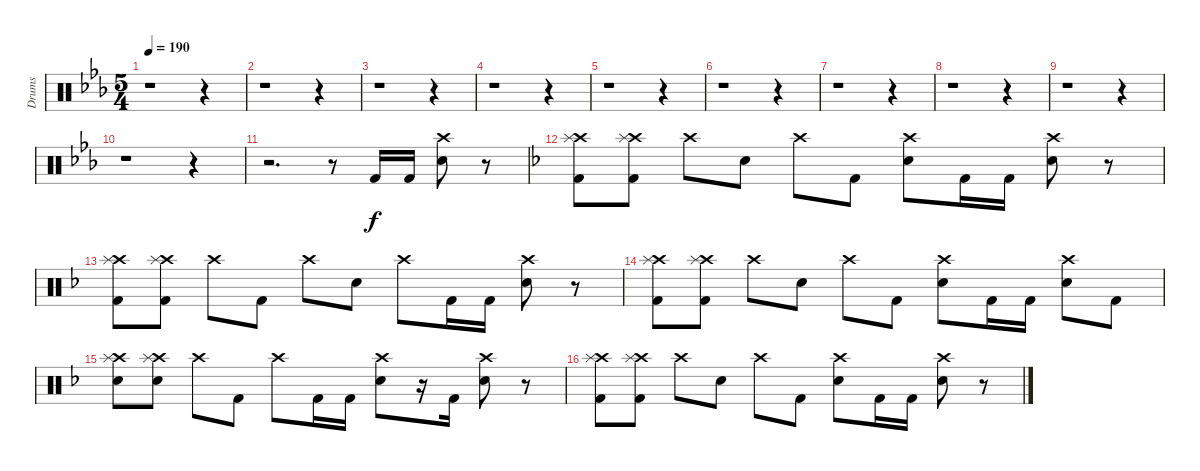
\track ("Drums" "Drums") {instrument percussion}
\staff {score}
\articulation defaults
\ts (5 4)
\tempo 190
\clef neutral
\ks eb
r.1{dy f} r.4 |
r.1 r.4 |
r.1 r.4 |
r.1 r.4 |
r.1 r.4 |
r.1 r.4 |
r.1 r.4 |
r.1 r.4 |
r.1 r.4 |
r.1 r.4 |
r.2{d} r.8 "Kick (hit) 2".16 "Kick (hit) 2".16 ("Electric Snare (hit)" "Crash high (hit)").8 r.8 |
\ks dminor
("Kick (hit) 2" "Crash high (hit)" "Splash (hit)").8 ("Kick (hit) 2" "Crash high (hit)" "Splash (hit)").8 "Crash high (hit)".8 "Electric Snare (hit)".8 "Crash high (hit)".8 "Kick (hit) 2".8 ("Electric Snare (hit)" "Crash high (hit)").8 "Kick (hit) 2".16 "Kick (hit) 2".16 ("Electric Snare (hit)" "Crash high (hit)").8 r.8 |
("Kick (hit) 2" "Crash high (hit)" "Splash (hit)").8 ("Kick (hit) 2" "Crash high (hit)" "Splash (hit)").8 "Crash high (hit)".8 "Kick (hit) 2".8 "Crash high (hit)".8 "Electric Snare (hit)".8 "Crash high (hit)".8 "Kick (hit) 2".16 "Kick (hit) 2".16 ("Electric Snare (hit)" "Crash high (hit)").8 r.8 |
("Kick (hit) 2" "Crash high (hit)" "Splash (hit)").8 ("Kick (hit) 2" "Crash high (hit)" "Splash (hit)").8 "Crash high (hit)".8 "Electric Snare (hit)".8 "Crash high (hit)".8 "Kick (hit) 2".8 ("Electric Snare (hit)" "Crash high (hit)").8 "Kick (hit) 2".16 "Kick (hit) 2".16 ("Electric Snare (hit)" "Crash high (hit)").8 "Kick (hit) 2".8 |
("Electric Snare (hit)" "Crash high (hit)" "Splash (hit)").8 ("Electric Snare (hit)" "Crash high (hit)" "Splash (hit)").8 "Crash high (hit)".8 "Kick (hit) 2".8 "Crash high (hit)".8 "Kick (hit) 2".16 "Kick (hit) 2".16 ("Electric Snare (hit)" "Crash high (hit)").8 r.16 "Kick (hit) 2".16 ("Electric Snare (hit)" "Crash high (hit)").8 r.8 |
("Kick (hit) 2" "Crash high (hit)" "Splash (hit)").8 ("Kick (hit) 2" "Crash high (hit)" "Splash (hit)").8 "Crash high (hit)".8 "Electric Snare (hit)".8 "Crash high (hit)".8 "Kick (hit) 2".8 ("Electric Snare (hit)" "Crash high (hit)").8 "Kick (hit) 2".16 "Kick (hit) 2".16 ("Electric Snare (hit)" "Crash high (hit)").8 r.8
